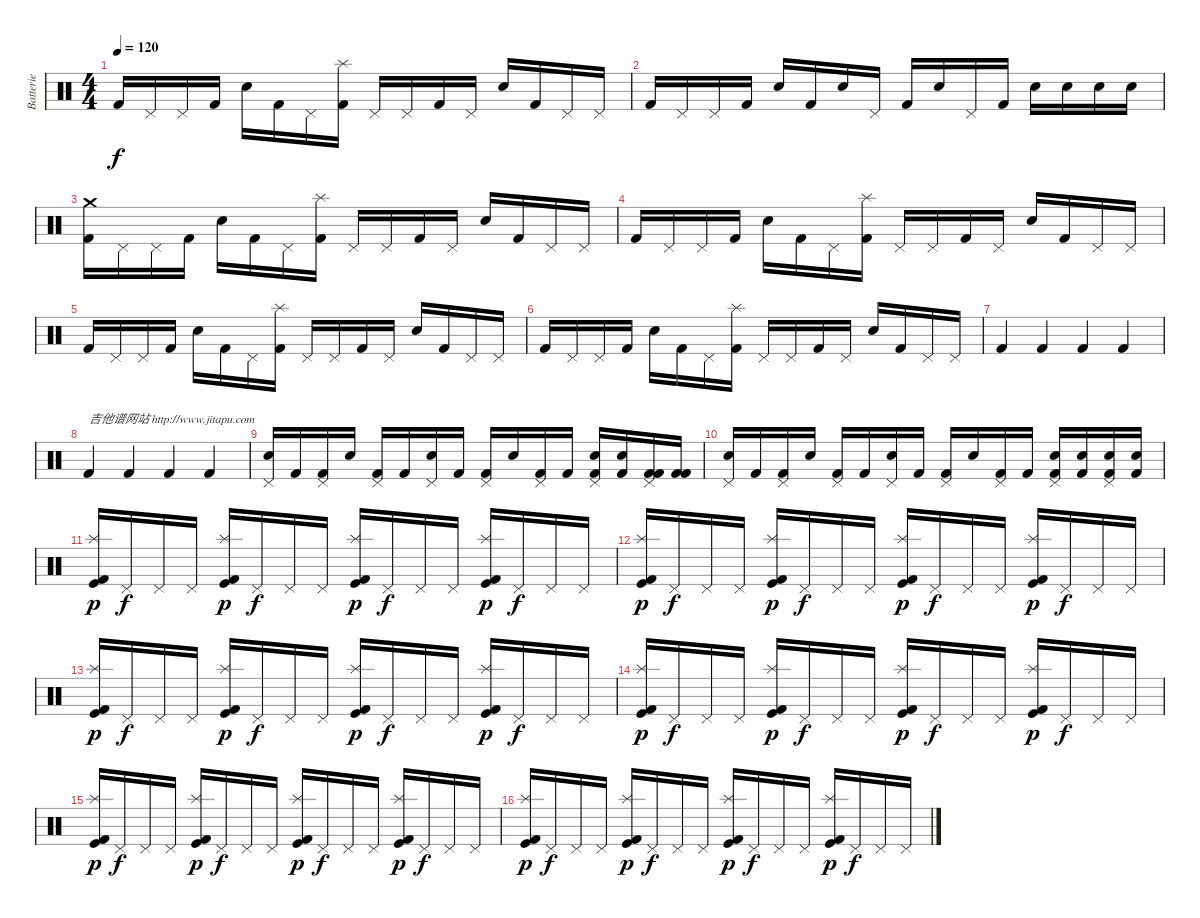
\track ("Batterie" "Batterie") {instrument percussion}
\staff {score}
\articulation defaults
\ts (4 4)
\tempo 120
\clef neutral
\ks c "Kick (hit) 2".16{dy f} "Pedal Hi-Hat (hit)".16 "Pedal Hi-Hat (hit)".16 "Kick (hit) 2".16 "Electric Snare (hit)".16 "Kick (hit) 2".16 "Pedal Hi-Hat (hit)".16
("Splash (hit)" "Kick (hit) 2").16 "Pedal Hi-Hat (hit)".16 "Pedal Hi-Hat (hit)".16 "Kick (hit) 2".16 "Pedal Hi-Hat (hit)".16 "Electric Snare (hit)".16 "Kick (hit) 2".16 "Pedal Hi-Hat (hit)".16 "Pedal Hi-Hat (hit)".16 |
"Kick (hit) 2".16 "Pedal Hi-Hat (hit)".16 "Pedal Hi-Hat (hit)".16 "Kick (hit) 2".16 "Electric Snare (hit)".16 "Kick (hit) 2".16 "Electric Snare (hit)".16 "Pedal Hi-Hat (hit)".16 "Kick (hit) 2".16 "Electric Snare (hit)".16 "Pedal Hi-Hat (hit)".16 "Kick (hit) 2".16 "Electric Snare (hit)".16 "Electric Snare (hit)".16 "Electric Snare (hit)".16 "Electric Snare (hit)".16 |
("Crash medium (hit)" "Kick (hit) 2").16 "Pedal Hi-Hat (hit)".16 "Pedal Hi-Hat (hit)".16 "Kick (hit) 2".16 "Electric Snare (hit)".16 "Kick (hit) 2".16 "Pedal Hi-Hat (hit)".16 ("Splash (hit)" "Kick (hit) 2").16 "Pedal Hi-Hat (hit)".16 "Pedal Hi-Hat (hit)".16 "Kick (hit) 2".16 "Pedal Hi-Hat (hit)".16 "Electric Snare (hit)".16 "Kick (hit) 2".16 "Pedal Hi-Hat (hit)".16 "Pedal Hi-Hat (hit)".16 |
"Kick (hit) 2".16 "Pedal Hi-Hat (hit)".16 "Pedal Hi-Hat (hit)".16 "Kick (hit) 2".16 "Electric Snare (hit)".16 "Kick (hit) 2".16 "Pedal Hi-Hat (hit)".16 ("Splash (hit)" "Kick (hit) 2").16 "Pedal Hi-Hat (hit)".16 "Pedal Hi-Hat (hit)".16 "Kick (hit) 2".16 "Pedal Hi-Hat (hit)".16 "Electric Snare (hit)".16 "Kick (hit) 2".16 "Pedal Hi-Hat (hit)".16 "Pedal Hi-Hat (hit)".16 |
"Kick (hit) 2".16 "Pedal Hi-Hat (hit)".16 "Pedal Hi-Hat (hit)".16 "Kick (hit) 2".16 "Electric Snare (hit)".16 "Kick (hit) 2".16 "Pedal Hi-Hat (hit)".16 ("Splash (hit)" "Kick (hit) 2").16 "Pedal Hi-Hat (hit)".16 "Pedal Hi-Hat (hit)".16 "Kick (hit) 2".16 "Pedal Hi-Hat (hit)".16 "Electric Snare (hit)".16 "Kick (hit) 2".16 "Pedal Hi-Hat (hit)".16 "Pedal Hi-Hat (hit)".16 |
"Kick (hit) 2".16 "Pedal Hi-Hat (hit)".16 "Pedal Hi-Hat (hit)".16 "Kick (hit) 2".16 "Electric Snare (hit)".16 "Kick (hit) 2".16 "Pedal Hi-Hat (hit)".16 ("Splash (hit)" "Kick (hit) 2").16 "Pedal Hi-Hat (hit)".16 "Pedal Hi-Hat (hit)".16 "Kick (hit) 2".16 "Pedal Hi-Hat (hit)".16 "Electric Snare (hit)".16 "Kick (hit) 2".16 "Pedal Hi-Hat (hit)".16 "Pedal Hi-Hat (hit)".16 |
"Kick (hit) 2".4 "Kick (hit) 2".4 "Kick (hit) 2".4 "Kick (hit) 2".4 |
"Kick (hit) 2".4{txt "吉他谱网站 http://www.jitapu.com"} "Kick (hit) 2".4 "Kick (hit) 2".4 "Kick (hit) 2".4 |
("Pedal Hi-Hat (hit)" "Electric Snare (hit)").16 "Kick (hit) 2".16 ("Pedal Hi-Hat (hit)" "Kick (hit) 2").16 "Electric Snare (hit)".16 ("Pedal Hi-Hat (hit)" "Kick (hit) 2").16 "Kick (hit) 2".16 ("Pedal Hi-Hat (hit)" "Electric Snare (hit)").16 "Kick (hit) 2".16 ("Pedal Hi-Hat (hit)" "Kick (hit) 2").16 "Electric Snare (hit)".16 ("Pedal Hi-Hat (hit)" "Kick (hit) 2").16 "Kick (hit) 2".16 ("Pedal Hi-Hat (hit)" "Snare (hit) 2" "Kick (hit) 2").16 ("Snare (hit) 2" "Kick (hit) 2").16 ("Pedal Hi-Hat (hit)" "Kick (hit) 2" "Kick (hit) 2").16 ("Kick (hit) 2" "Kick (hit) 2").16 |
("Pedal Hi-Hat (hit)" "Electric Snare (hit)").16 "Kick (hit) 2".16 ("Pedal Hi-Hat (hit)" "Kick (hit) 2").16 "Electric Snare (hit)".16 ("Pedal Hi-Hat (hit)" "Kick (hit) 2").16 "Kick (hit) 2".16 ("Pedal Hi-Hat (hit)" "Electric Snare (hit)").16 "Kick (hit) 2".16 ("Pedal Hi-Hat (hit)" "Kick (hit) 2").16 "Electric Snare (hit)".16 ("Pedal Hi-Hat (hit)" "Kick (hit) 2").16 "Kick (hit) 2".16 ("Pedal Hi-Hat (hit)" "Electric Snare (hit)" "Kick (hit) 2").16 ("Electric Snare (hit)" "Kick (hit) 2").16 ("Pedal Hi-Hat (hit)" "Electric Snare (hit)" "Kick (hit) 2").16 ("Electric Snare (hit)" "Kick (hit) 2").16 |
("Splash (hit)" "Kick (hit)" "Kick (hit) 2").16{dy p} "Pedal Hi-Hat (hit)".16{dy f} "Pedal Hi-Hat (hit)".16 "Pedal Hi-Hat (hit)".16 ("Splash (hit)" "Kick (hit)" "Kick (hit) 2").16{dy p} "Pedal Hi-Hat (hit)".16{dy f} "Pedal Hi-Hat (hit)".16 "Pedal Hi-Hat (hit)".16 ("Splash (hit)" "Kick (hit)" "Kick (hit) 2").16{dy p} "Pedal Hi-Hat (hit)".16{dy f} "Pedal Hi-Hat (hit)".16 "Pedal Hi-Hat (hit)".16 ("Splash (hit)" "Kick (hit)" "Kick (hit) 2").16{dy p} "Pedal Hi-Hat (hit)".16{dy f} "Pedal Hi-Hat (hit)".16 "Pedal Hi-Hat (hit)".16 |
("Splash (hit)" "Kick (hit)" "Kick (hit) 2").16{dy p} "Pedal Hi-Hat (hit)".16{dy f} "Pedal Hi-Hat (hit)".16 "Pedal Hi-Hat (hit)".16 ("Splash (hit)" "Kick (hit)" "Kick (hit) 2").16{dy p} "Pedal Hi-Hat (hit)".16{dy f} "Pedal Hi-Hat (hit)".16 "Pedal Hi-Hat (hit)".16 ("Splash (hit)" "Kick (hit)" "Kick (hit) 2").16{dy p} "Pedal Hi-Hat (hit)".16{dy f} "Pedal Hi-Hat (hit)".16 "Pedal Hi-Hat (hit)".16 ("Splash (hit)" "Kick (hit)" "Kick (hit) 2").16{dy p} "Pedal Hi-Hat (hit)".16{dy f} "Pedal Hi-Hat (hit)".16 "Pedal Hi-Hat (hit)".16 |
("Splash (hit)" "Kick (hit)" "Kick (hit) 2").16{dy p} "Pedal Hi-Hat (hit)".16{dy f} "Pedal Hi-Hat (hit)".16 "Pedal Hi-Hat (hit)".16 ("Splash (hit)" "Kick (hit)" "Kick (hit) 2").16{dy p} "Pedal Hi-Hat (hit)".16{dy f} "Pedal Hi-Hat (hit)".16 "Pedal Hi-Hat (hit)".16 ("Splash (hit)" "Kick (hit)" "Kick (hit) 2").16{dy p} "Pedal Hi-Hat (hit)".16{dy f} "Pedal Hi-Hat (hit)".16 "Pedal Hi-Hat (hit)".16 ("Splash (hit)" "Kick (hit)" "Kick (hit) 2").16{dy p} "Pedal Hi-Hat (hit)".16{dy f} "Pedal Hi-Hat (hit)".16 "Pedal Hi-Hat (hit)".16 |
("Splash (hit)" "Kick (hit)" "Kick (hit) 2").16{dy p} "Pedal Hi-Hat (hit)".16{dy f} "Pedal Hi-Hat (hit)".16 "Pedal Hi-Hat (hit)".16 ("Splash (hit)" "Kick (hit)" "Kick (hit) 2").16{dy p} "Pedal Hi-Hat (hit)".16{dy f} "Pedal Hi-Hat (hit)".16 "Pedal Hi-Hat (hit)".16 ("Splash (hit)" "Kick (hit)" "Kick (hit) 2").16{dy p} "Pedal Hi-Hat (hit)".16{dy f} "Pedal Hi-Hat (hit)".16 "Pedal Hi-Hat (hit)".16 ("Splash (hit)" "Kick (hit)" "Kick (hit) 2").16{dy p} "Pedal Hi-Hat (hit)".16{dy f} "Pedal Hi-Hat (hit)".16 "Pedal Hi-Hat (hit)".16 |
("Splash (hit)" "Kick (hit)" "Kick (hit) 2").16{dy p} "Pedal Hi-Hat (hit)".16{dy f} "Pedal Hi-Hat (hit)".16 "Pedal Hi-Hat (hit)".16 ("Splash (hit)" "Kick (hit)" "Kick (hit) 2").16{dy p} "Pedal Hi-Hat (hit)".16{dy f} "Pedal Hi-Hat (hit)".16 "Pedal Hi-Hat (hit)".16 ("Splash (hit)" "Kick (hit)" "Kick (hit) 2").16{dy p} "Pedal Hi-Hat (hit)".16{dy f} "Pedal Hi-Hat (hit)".16 "Pedal Hi-Hat (hit)".16 ("Splash (hit)" "Kick (hit)" "Kick (hit) 2").16{dy p} "Pedal Hi-Hat (hit)".16{dy f} "Pedal Hi-Hat (hit)".16 "Pedal Hi-Hat (hit)".16 |
("Splash (hit)" "Kick (hit)" "Kick (hit) 2").16{dy p} "Pedal Hi-Hat (hit)".16{dy f} "Pedal Hi-Hat (hit)".16 "Pedal Hi-Hat (hit)".16 ("Splash (hit)" "Kick (hit)" "Kick (hit) 2").16{dy p} "Pedal Hi-Hat (hit)".16{dy f} "Pedal Hi-Hat (hit)".16 "Pedal Hi-Hat (hit)".16 ("Splash (hit)" "Kick (hit)" "Kick (hit) 2").16{dy p} "Pedal Hi-Hat (hit)".16{dy f} "Pedal Hi-Hat (hit)".16 "Pedal Hi-Hat (hit)".16 ("Splash (hit)" "Kick (hit)" "Kick (hit) 2").16{dy p} "Pedal Hi-Hat (hit)".16{dy f} "Pedal Hi-Hat (hit)".16 "Pedal Hi-Hat (hit)".16
